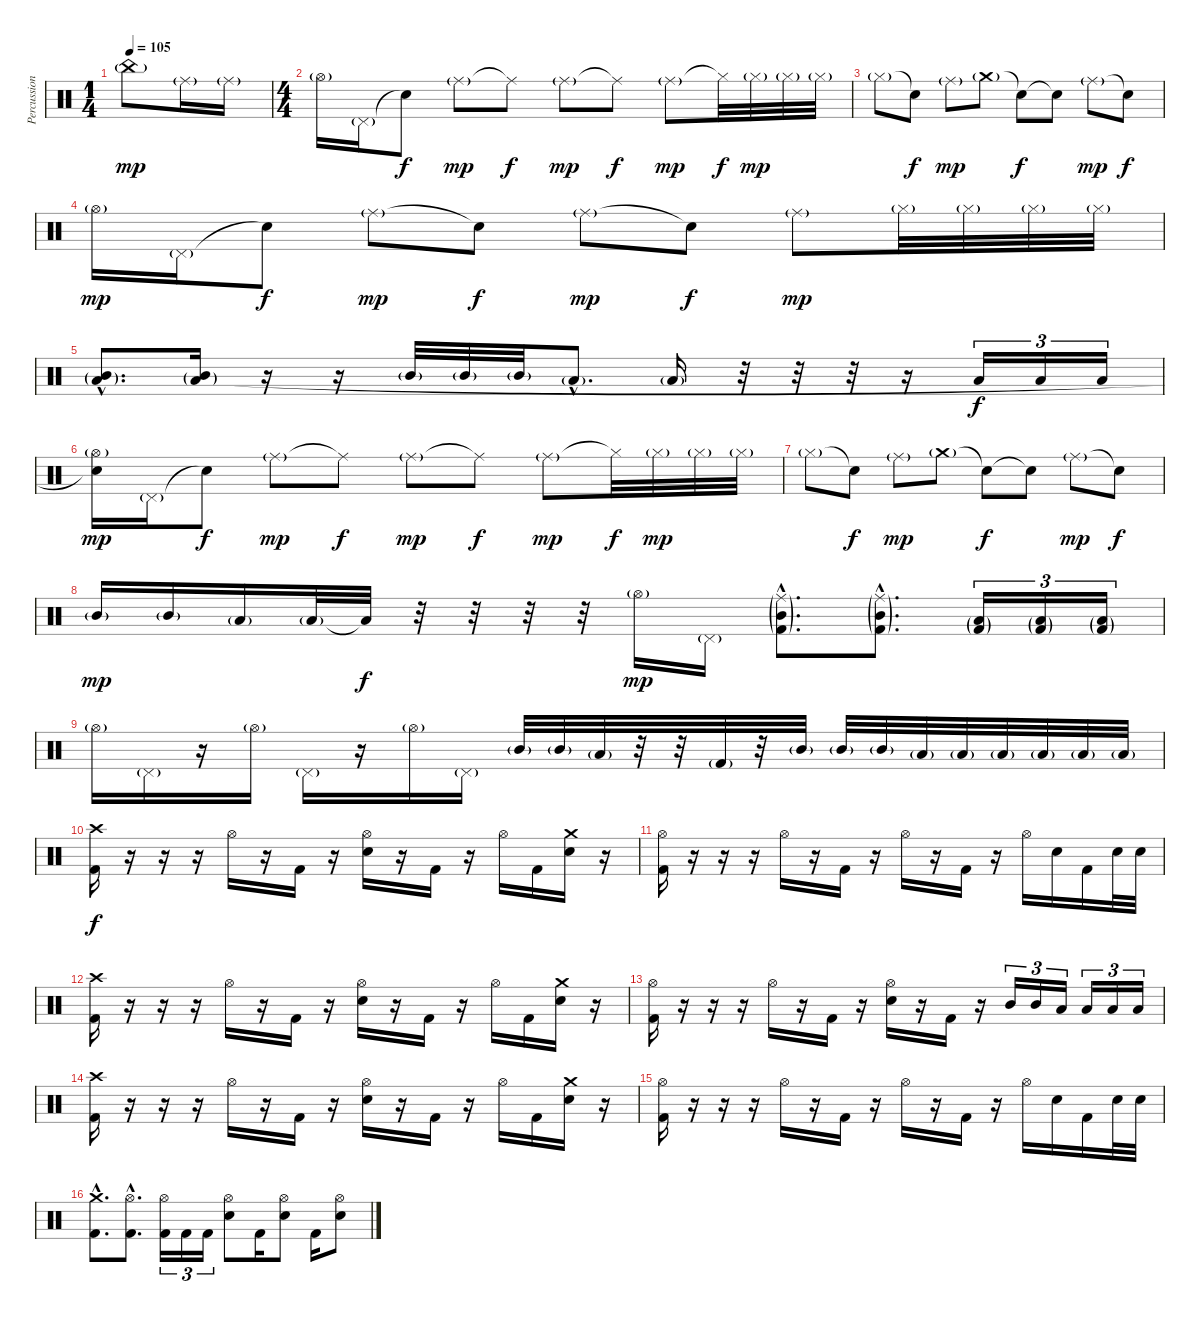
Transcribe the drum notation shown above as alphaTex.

\track ("Percussion" "Percussion") {instrument percussion}
\staff {score}
\articulation defaults
\ts (1 4)
\tempo 105
\clef neutral
\ks c "China (hit)"{g}.8{dy mp} "Ride (middle)"{g}.16 "Ride (middle)"{g}.16
|
\ts (4 4)
"Hi-Hat (open)"{g}.16 "Pedal Hi-Hat (hit)"{g}.16 "Snare (hit)"{t}.8{dy f} "Ride (middle)"{g}.8{dy mp} "Ride (middle)"{t}.8{dy f} "Ride (middle)"{g}.8{dy mp} "Ride (middle)"{t}.8{dy f} "Ride (middle)"{g}.8{dy mp} "Hi-Hat (closed)"{t}.32{dy f} "Hi-Hat (closed)"{g}.32{dy mp} "Hi-Hat (closed)"{g}.32 "Hi-Hat (closed)"{g}.32 |
"Hi-Hat (closed)"{g}.8 "Snare (hit)"{t}.8{dy f} "Ride (middle)"{g}.8{dy mp} "Crash medium (hit)"{g}.8 "Snare (hit)"{t}.8{dy f} "Snare (hit)"{t}.8 "Ride (middle)"{g}.8{dy mp} "Snare (hit)"{t}.8{dy f} |
"Hi-Hat (open)"{g}.16{dy mp} "Pedal Hi-Hat (hit)"{g}.16 "Snare (hit)"{t}.8{dy f} "Ride (middle)"{g}.8{dy mp} "Snare (hit)"{t}.8{dy f} "Ride (middle)"{g}.8{dy mp} "Snare (hit)"{t}.8{dy f} "Ride (middle)"{g}.8{dy mp} "Hi-Hat (closed)"{g}.32 "Hi-Hat (closed)"{g}.32 "Hi-Hat (closed)"{g}.32 "Hi-Hat (closed)"{g}.32 |
("Mid Tom (hit)"{g hac} "Low Tom (hit)"{g hac}).8{d} ("Mid Tom (hit)"{g} "Low Tom (hit)"{g}).16 r.16 r.16 "Mid Tom (hit)"{g}.32 "Mid Tom (hit)"{g}.32 "Mid Tom (hit)"{g}.32 "Low Tom (hit)"{g hac}.8{d} "Low Tom (hit)"{g}.16 r.32 r.32 r.32 r.16 "Low Floor Tom (hit)".16{tu (3 2) dy f} "Low Floor Tom (hit)".16{tu (3 2)} "Low Floor Tom (hit)".16{tu (3 2)} |
("Hi-Hat (open)"{g} "Snare (hit)"{t}).16{dy mp} "Pedal Hi-Hat (hit)"{g}.16 "Snare (hit)"{t}.8{dy f} "Ride (middle)"{g}.8{dy mp} "Ride (middle)"{t}.8{dy f} "Ride (middle)"{g}.8{dy mp} "Ride (middle)"{t}.8{dy f} "Ride (middle)"{g}.8{dy mp} "Hi-Hat (closed)"{t}.32{dy f} "Hi-Hat (closed)"{g}.32{dy mp} "Hi-Hat (closed)"{g}.32 "Hi-Hat (closed)"{g}.32 |
"Hi-Hat (closed)"{g}.8 "Snare (hit)"{t}.8{dy f} "Ride (middle)"{g}.8{dy mp} "Crash medium (hit)"{g}.8 "Snare (hit)"{t}.8{dy f} "Snare (hit)"{t}.8 "Ride (middle)"{g}.8{dy mp} "Snare (hit)"{t}.8{dy f} |
"Mid Tom (hit)"{g}.16{dy mp} "Mid Tom (hit)"{g}.16 "Low Tom (hit)"{g}.16 "Low Floor Tom (hit)"{g}.32 "Low Floor Tom (hit)"{t}.32{dy f} r.32 r.32 r.32 r.32 "Hi-Hat (open)"{g}.16{dy mp} "Pedal Hi-Hat (hit)"{g}.16 ("Ride (middle)"{g hac} "Mid Tom (hit)"{g hac} "Kick (hit) 2"{g hac}).8{d} ("Ride (middle)"{g hac} "Mid Tom (hit)"{g hac} "Kick (hit) 2"{g hac}).8{d} ("Low Floor Tom (hit)"{g} "Kick (hit) 2"{g}).16{tu (3 2)} ("Low Floor Tom (hit)"{g} "Kick (hit) 2"{g}).16{tu (3 2)} ("Low Floor Tom (hit)"{g} "Kick (hit) 2"{g}).16{tu (3 2)} |
"Hi-Hat (open)"{g}.16 "Pedal Hi-Hat (hit)"{g}.16 r.16 "Hi-Hat (open)"{g}.16 "Pedal Hi-Hat (hit)"{g}.16 r.16 "Hi-Hat (open)"{g}.16 "Pedal Hi-Hat (hit)"{g}.16 "Mid Tom (hit)"{g}.32 "Mid Tom (hit)"{g}.32 "Low Tom (hit)"{g}.32 r.32 r.32 "Kick (hit) 2"{g}.32 r.32 "Mid Tom (hit)"{g}.32 "Mid Tom (hit)"{g}.32 "Mid Tom (hit)"{g}.32 "Low Tom (hit)"{g}.32 "Low Tom (hit)"{g}.32 "Low Tom (hit)"{g}.32 "Low Floor Tom (hit)"{g}.32 "Low Floor Tom (hit)"{g}.32 "Low Floor Tom (hit)"{g}.32 |
("Crash high (hit)" "Kick (hit) 2").16{dy f} r.16 r.16 r.16 "Hi-Hat (open)".16 r.16 "Kick (hit) 2".16 r.16 ("Hi-Hat (open)" "Electric Snare (hit)").16 r.16 "Kick (hit) 2".16 r.16 "Hi-Hat (open)".16 "Kick (hit) 2".16 ("Crash medium (hit)" "Electric Snare (hit)").16 r.16 |
("Hi-Hat (open)" "Kick (hit) 2").16 r.16 r.16 r.16 "Hi-Hat (open)".16 r.16 "Kick (hit) 2".16 r.16 "Hi-Hat (open)".16 r.16 "Kick (hit) 2".16 r.16 "Hi-Hat (open)".16 "Electric Snare (hit)".16 "Kick (hit) 2".16 "Electric Snare (hit)".32 "Electric Snare (hit)".32 |
("Crash high (hit)" "Kick (hit) 2").16 r.16 r.16 r.16 "Hi-Hat (open)".16 r.16 "Kick (hit) 2".16 r.16 ("Hi-Hat (open)" "Electric Snare (hit)").16 r.16 "Kick (hit) 2".16 r.16 "Hi-Hat (open)".16 "Kick (hit) 2".16 ("Crash medium (hit)" "Electric Snare (hit)").16 r.16 |
("Hi-Hat (open)" "Kick (hit) 2").16 r.16 r.16 r.16 "Hi-Hat (open)".16 r.16 "Kick (hit) 2".16 r.16 ("Hi-Hat (open)" "Electric Snare (hit)").16 r.16 "Kick (hit) 2".16 r.16 "Mid Tom (hit)".16{tu (3 2)} "Mid Tom (hit)".16{tu (3 2)} "Low Tom (hit)".16{tu (3 2)} "Low Tom (hit)".16{tu (3 2)} "Low Floor Tom (hit)".16{tu (3 2)} "Low Floor Tom (hit)".16{tu (3 2)} |
("Crash high (hit)" "Kick (hit) 2").16 r.16 r.16 r.16 "Hi-Hat (open)".16 r.16 "Kick (hit) 2".16 r.16 ("Hi-Hat (open)" "Electric Snare (hit)").16 r.16 "Kick (hit) 2".16 r.16 "Hi-Hat (open)".16 "Kick (hit) 2".16 ("Crash medium (hit)" "Electric Snare (hit)").16 r.16 |
("Hi-Hat (open)" "Kick (hit) 2").16 r.16 r.16 r.16 "Hi-Hat (open)".16 r.16 "Kick (hit) 2".16 r.16 "Hi-Hat (open)".16 r.16 "Kick (hit) 2".16 r.16 "Hi-Hat (open)".16 "Electric Snare (hit)".16 "Kick (hit) 2".16 "Electric Snare (hit)".32 "Electric Snare (hit)".32 |
("Crash medium (hit)"{hac} "Kick (hit) 2"{hac}).8{d} ("Hi-Hat (open)"{hac} "Kick (hit) 2"{hac}).8{d} ("Hi-Hat (open)" "Kick (hit) 2").16{tu (3 2)} "Kick (hit) 2".16{tu (3 2)} "Kick (hit) 2".16{tu (3 2)} ("Hi-Hat (open)" "Electric Snare (hit)").8 "Kick (hit) 2".16 ("Hi-Hat (open)" "Electric Snare (hit)").8 "Kick (hit) 2".16 ("Hi-Hat (open)" "Electric Snare (hit)").8
